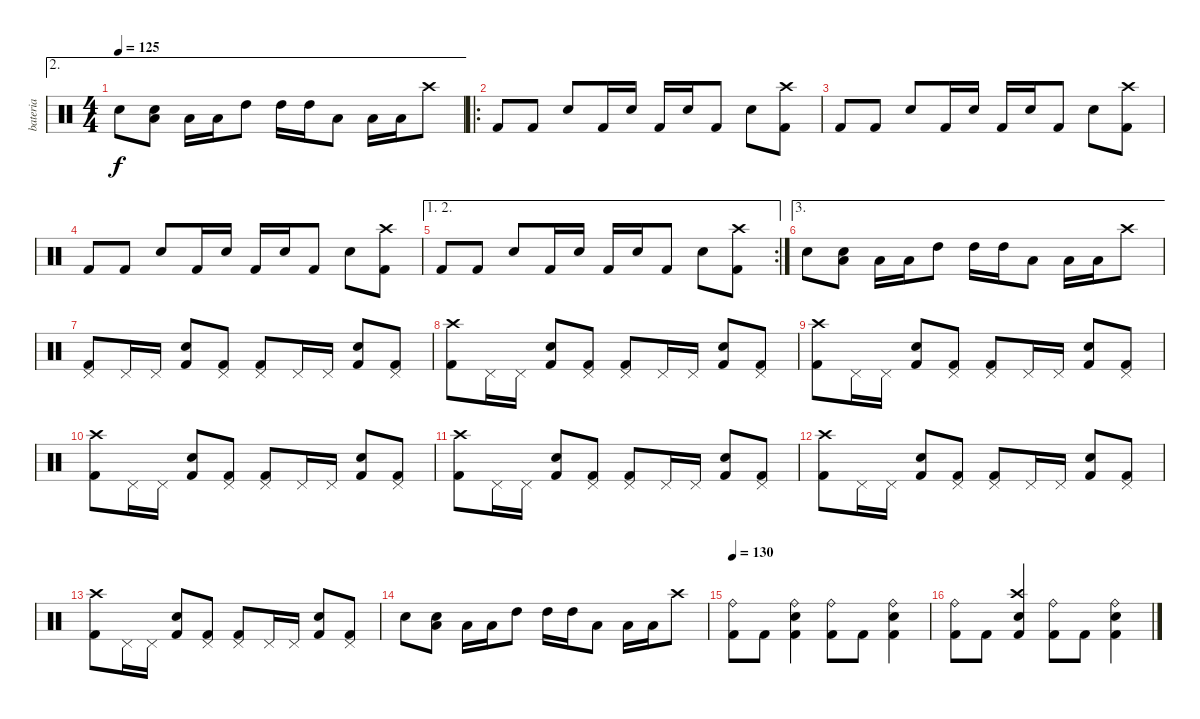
\track ("bateria" "bateria") {instrument percussion}
\staff {score}
\articulation defaults
\ae 2
\ts (4 4)
\tempo 125
\clef neutral
\ks c "Snare (hit) 2".8{dy f}
("Low Tom (hit)" "Snare (hit) 2").8 "Low Tom (hit)".16 "Low Tom (hit)".16 "High Tom (hit)".8 "High Tom (hit)".16 "High Tom (hit)".16 "Low Tom (hit)".8 "Low Tom (hit)".16 "Low Tom (hit)".16 "Crash high (hit)".8 |
\ro "Kick (hit) 2".8 "Kick (hit) 2".8 "Snare (hit) 2".8 "Kick (hit) 2".16 "Snare (hit) 2".16 "Kick (hit) 2".16 "Snare (hit) 2".16 "Kick (hit) 2".8 "Snare (hit) 2".8
("Crash high (hit)" "Kick (hit) 2").8 |
"Kick (hit) 2".8 "Kick (hit) 2".8 "Snare (hit) 2".8 "Kick (hit) 2".16 "Snare (hit) 2".16 "Kick (hit) 2".16 "Snare (hit) 2".16 "Kick (hit) 2".8 "Snare (hit) 2".8 ("Crash high (hit)" "Kick (hit) 2").8 |
"Kick (hit) 2".8 "Kick (hit) 2".8 "Snare (hit) 2".8 "Kick (hit) 2".16 "Snare (hit) 2".16 "Kick (hit) 2".16 "Snare (hit) 2".16 "Kick (hit) 2".8 "Snare (hit) 2".8 ("Crash high (hit)" "Kick (hit) 2").8 |
\ae (1 2)
\rc 2 "Kick (hit) 2".8 "Kick (hit) 2".8 "Snare (hit) 2".8 "Kick (hit) 2".16 "Snare (hit) 2".16 "Kick (hit) 2".16 "Snare (hit) 2".16 "Kick (hit) 2".8 "Snare (hit) 2".8
("Crash high (hit)" "Kick (hit) 2").8 |
\ae 3 "Snare (hit) 2".8
("Low Tom (hit)" "Snare (hit) 2").8 "Low Tom (hit)".16 "Low Tom (hit)".16 "High Tom (hit)".8 "High Tom (hit)".16 "High Tom (hit)".16 "Low Tom (hit)".8 "Low Tom (hit)".16 "Low Tom (hit)".16 "Crash high (hit)".8 |
("Pedal Hi-Hat (hit)" "Kick (hit) 2").8 "Pedal Hi-Hat (hit)".16 "Pedal Hi-Hat (hit)".16 ("Snare (hit) 2" "Kick (hit) 2").8 ("Pedal Hi-Hat (hit)" "Kick (hit) 2").8 ("Pedal Hi-Hat (hit)" "Kick (hit) 2").8 "Pedal Hi-Hat (hit)".16 "Pedal Hi-Hat (hit)".16 ("Snare (hit) 2" "Kick (hit) 2").8 ("Pedal Hi-Hat (hit)" "Kick (hit) 2").8 |
("Crash high (hit)" "Kick (hit) 2").8 "Pedal Hi-Hat (hit)".16 "Pedal Hi-Hat (hit)".16 ("Snare (hit) 2" "Kick (hit) 2").8 ("Pedal Hi-Hat (hit)" "Kick (hit) 2").8 ("Pedal Hi-Hat (hit)" "Kick (hit) 2").8 "Pedal Hi-Hat (hit)".16 "Pedal Hi-Hat (hit)".16 ("Snare (hit) 2" "Kick (hit) 2").8 ("Pedal Hi-Hat (hit)" "Kick (hit) 2").8 |
("Crash high (hit)" "Kick (hit) 2").8 "Pedal Hi-Hat (hit)".16 "Pedal Hi-Hat (hit)".16 ("Snare (hit) 2" "Kick (hit) 2").8 ("Pedal Hi-Hat (hit)" "Kick (hit) 2").8 ("Pedal Hi-Hat (hit)" "Kick (hit) 2").8 "Pedal Hi-Hat (hit)".16 "Pedal Hi-Hat (hit)".16 ("Snare (hit) 2" "Kick (hit) 2").8 ("Pedal Hi-Hat (hit)" "Kick (hit) 2").8 |
("Crash high (hit)" "Kick (hit) 2").8 "Pedal Hi-Hat (hit)".16 "Pedal Hi-Hat (hit)".16 ("Snare (hit) 2" "Kick (hit) 2").8 ("Pedal Hi-Hat (hit)" "Kick (hit) 2").8 ("Pedal Hi-Hat (hit)" "Kick (hit) 2").8 "Pedal Hi-Hat (hit)".16 "Pedal Hi-Hat (hit)".16 ("Snare (hit) 2" "Kick (hit) 2").8 ("Pedal Hi-Hat (hit)" "Kick (hit) 2").8 |
("Crash high (hit)" "Kick (hit) 2").8 "Pedal Hi-Hat (hit)".16 "Pedal Hi-Hat (hit)".16 ("Snare (hit) 2" "Kick (hit) 2").8 ("Pedal Hi-Hat (hit)" "Kick (hit) 2").8 ("Pedal Hi-Hat (hit)" "Kick (hit) 2").8 "Pedal Hi-Hat (hit)".16 "Pedal Hi-Hat (hit)".16 ("Snare (hit) 2" "Kick (hit) 2").8 ("Pedal Hi-Hat (hit)" "Kick (hit) 2").8 |
("Crash high (hit)" "Kick (hit) 2").8 "Pedal Hi-Hat (hit)".16 "Pedal Hi-Hat (hit)".16 ("Snare (hit) 2" "Kick (hit) 2").8 ("Pedal Hi-Hat (hit)" "Kick (hit) 2").8 ("Pedal Hi-Hat (hit)" "Kick (hit) 2").8 "Pedal Hi-Hat (hit)".16 "Pedal Hi-Hat (hit)".16 ("Snare (hit) 2" "Kick (hit) 2").8 ("Pedal Hi-Hat (hit)" "Kick (hit) 2").8 |
("Crash high (hit)" "Kick (hit) 2").8 "Pedal Hi-Hat (hit)".16 "Pedal Hi-Hat (hit)".16 ("Snare (hit) 2" "Kick (hit) 2").8 ("Pedal Hi-Hat (hit)" "Kick (hit) 2").8 ("Pedal Hi-Hat (hit)" "Kick (hit) 2").8 "Pedal Hi-Hat (hit)".16 "Pedal Hi-Hat (hit)".16 ("Snare (hit) 2" "Kick (hit) 2").8 ("Pedal Hi-Hat (hit)" "Kick (hit) 2").8 |
"Snare (hit) 2".8 ("Low Tom (hit)" "Snare (hit) 2").8 "Low Tom (hit)".16 "Low Tom (hit)".16 "High Tom (hit)".8 "High Tom (hit)".16 "High Tom (hit)".16 "Low Tom (hit)".8 "Low Tom (hit)".16 "Low Tom (hit)".16 "Crash high (hit)".8 |
\tempo 130
("Ride (bell)" "Kick (hit) 2").8 "Kick (hit) 2".8 ("Ride (bell)" "Snare (hit) 2" "Kick (hit) 2").4 ("Ride (bell)" "Kick (hit) 2").8 "Kick (hit) 2".8 ("Ride (bell)" "Snare (hit) 2" "Kick (hit) 2").4 |
("Ride (bell)" "Kick (hit) 2").8 "Kick (hit) 2".8 ("Crash high (hit)" "Snare (hit) 2" "Kick (hit) 2").4 ("Ride (bell)" "Kick (hit) 2").8 "Kick (hit) 2".8 ("Ride (bell)" "Snare (hit) 2" "Kick (hit) 2").4
